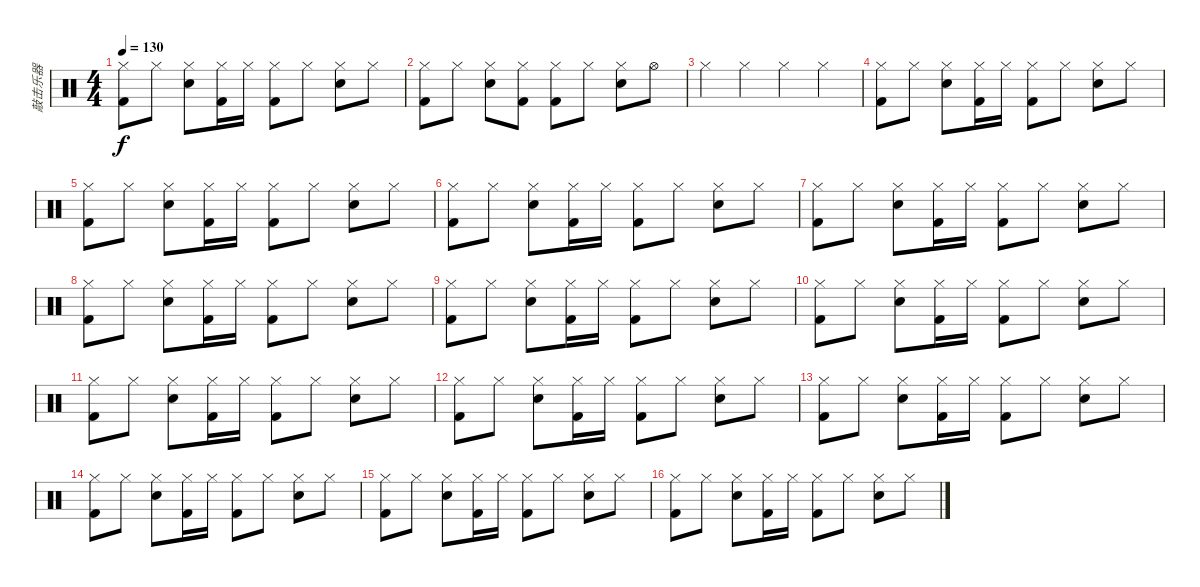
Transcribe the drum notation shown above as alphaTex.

\track ("敲击乐器" "敲击乐器") {instrument percussion}
\staff {score}
\articulation defaults
\ts (4 4)
\tempo 130
\clef neutral
\ks c
("Hi-Hat (closed)" "Kick (hit) 2").8{dy f} "Hi-Hat (closed)".8 ("Hi-Hat (closed)" "Snare (hit) 2").8 ("Hi-Hat (closed)" "Kick (hit) 2").16 "Hi-Hat (closed)".16 ("Hi-Hat (closed)" "Kick (hit) 2").8 "Hi-Hat (closed)".8 ("Hi-Hat (closed)" "Snare (hit) 2").8 "Hi-Hat (closed)".8 |
("Hi-Hat (closed)" "Kick (hit) 2").8 "Hi-Hat (closed)".8 ("Hi-Hat (closed)" "Snare (hit) 2").8 ("Hi-Hat (closed)" "Kick (hit) 2").8 ("Hi-Hat (closed)" "Kick (hit) 2").8 "Hi-Hat (closed)".8 ("Hi-Hat (closed)" "Snare (hit) 2").8 "Hi-Hat (open)".8 |
"Hi-Hat (closed)".4 "Hi-Hat (closed)".4 "Hi-Hat (closed)".4 "Hi-Hat (closed)".4 |
("Hi-Hat (closed)" "Kick (hit) 2").8 "Hi-Hat (closed)".8 ("Hi-Hat (closed)" "Snare (hit) 2").8 ("Hi-Hat (closed)" "Kick (hit) 2").16 "Hi-Hat (closed)".16 ("Hi-Hat (closed)" "Kick (hit) 2").8 "Hi-Hat (closed)".8 ("Hi-Hat (closed)" "Snare (hit) 2").8 "Hi-Hat (closed)".8 |
("Hi-Hat (closed)" "Kick (hit) 2").8 "Hi-Hat (closed)".8 ("Hi-Hat (closed)" "Snare (hit) 2").8 ("Hi-Hat (closed)" "Kick (hit) 2").16 "Hi-Hat (closed)".16 ("Hi-Hat (closed)" "Kick (hit) 2").8 "Hi-Hat (closed)".8 ("Hi-Hat (closed)" "Snare (hit) 2").8 "Hi-Hat (closed)".8 |
("Hi-Hat (closed)" "Kick (hit) 2").8 "Hi-Hat (closed)".8 ("Hi-Hat (closed)" "Snare (hit) 2").8 ("Hi-Hat (closed)" "Kick (hit) 2").16 "Hi-Hat (closed)".16 ("Hi-Hat (closed)" "Kick (hit) 2").8 "Hi-Hat (closed)".8 ("Hi-Hat (closed)" "Snare (hit) 2").8 "Hi-Hat (closed)".8 |
("Hi-Hat (closed)" "Kick (hit) 2").8 "Hi-Hat (closed)".8 ("Hi-Hat (closed)" "Snare (hit) 2").8 ("Hi-Hat (closed)" "Kick (hit) 2").16 "Hi-Hat (closed)".16 ("Hi-Hat (closed)" "Kick (hit) 2").8 "Hi-Hat (closed)".8 ("Hi-Hat (closed)" "Snare (hit) 2").8 "Hi-Hat (closed)".8 |
("Hi-Hat (closed)" "Kick (hit) 2").8 "Hi-Hat (closed)".8 ("Hi-Hat (closed)" "Snare (hit) 2").8 ("Hi-Hat (closed)" "Kick (hit) 2").16 "Hi-Hat (closed)".16 ("Hi-Hat (closed)" "Kick (hit) 2").8 "Hi-Hat (closed)".8 ("Hi-Hat (closed)" "Snare (hit) 2").8 "Hi-Hat (closed)".8 |
("Hi-Hat (closed)" "Kick (hit) 2").8 "Hi-Hat (closed)".8 ("Hi-Hat (closed)" "Snare (hit) 2").8 ("Hi-Hat (closed)" "Kick (hit) 2").16 "Hi-Hat (closed)".16 ("Hi-Hat (closed)" "Kick (hit) 2").8 "Hi-Hat (closed)".8 ("Hi-Hat (closed)" "Snare (hit) 2").8 "Hi-Hat (closed)".8 |
("Hi-Hat (closed)" "Kick (hit) 2").8 "Hi-Hat (closed)".8 ("Hi-Hat (closed)" "Snare (hit) 2").8 ("Hi-Hat (closed)" "Kick (hit) 2").16 "Hi-Hat (closed)".16 ("Hi-Hat (closed)" "Kick (hit) 2").8 "Hi-Hat (closed)".8 ("Hi-Hat (closed)" "Snare (hit) 2").8 "Hi-Hat (closed)".8 |
("Hi-Hat (closed)" "Kick (hit) 2").8 "Hi-Hat (closed)".8 ("Hi-Hat (closed)" "Snare (hit) 2").8 ("Hi-Hat (closed)" "Kick (hit) 2").16 "Hi-Hat (closed)".16 ("Hi-Hat (closed)" "Kick (hit) 2").8 "Hi-Hat (closed)".8 ("Hi-Hat (closed)" "Snare (hit) 2").8 "Hi-Hat (closed)".8 |
("Hi-Hat (closed)" "Kick (hit) 2").8 "Hi-Hat (closed)".8 ("Hi-Hat (closed)" "Snare (hit) 2").8 ("Hi-Hat (closed)" "Kick (hit) 2").16 "Hi-Hat (closed)".16 ("Hi-Hat (closed)" "Kick (hit) 2").8 "Hi-Hat (closed)".8 ("Hi-Hat (closed)" "Snare (hit) 2").8 "Hi-Hat (closed)".8 |
("Hi-Hat (closed)" "Kick (hit) 2").8 "Hi-Hat (closed)".8 ("Hi-Hat (closed)" "Snare (hit) 2").8 ("Hi-Hat (closed)" "Kick (hit) 2").16 "Hi-Hat (closed)".16 ("Hi-Hat (closed)" "Kick (hit) 2").8 "Hi-Hat (closed)".8 ("Hi-Hat (closed)" "Snare (hit) 2").8 "Hi-Hat (closed)".8 |
("Hi-Hat (closed)" "Kick (hit) 2").8 "Hi-Hat (closed)".8 ("Hi-Hat (closed)" "Snare (hit) 2").8 ("Hi-Hat (closed)" "Kick (hit) 2").16 "Hi-Hat (closed)".16 ("Hi-Hat (closed)" "Kick (hit) 2").8 "Hi-Hat (closed)".8 ("Hi-Hat (closed)" "Snare (hit) 2").8 "Hi-Hat (closed)".8 |
("Hi-Hat (closed)" "Kick (hit) 2").8 "Hi-Hat (closed)".8 ("Hi-Hat (closed)" "Snare (hit) 2").8 ("Hi-Hat (closed)" "Kick (hit) 2").16 "Hi-Hat (closed)".16 ("Hi-Hat (closed)" "Kick (hit) 2").8 "Hi-Hat (closed)".8 ("Hi-Hat (closed)" "Snare (hit) 2").8 "Hi-Hat (closed)".8 |
("Hi-Hat (closed)" "Kick (hit) 2").8 "Hi-Hat (closed)".8 ("Hi-Hat (closed)" "Snare (hit) 2").8 ("Hi-Hat (closed)" "Kick (hit) 2").16 "Hi-Hat (closed)".16 ("Hi-Hat (closed)" "Kick (hit) 2").8 "Hi-Hat (closed)".8 ("Hi-Hat (closed)" "Snare (hit) 2").8 "Hi-Hat (closed)".8
